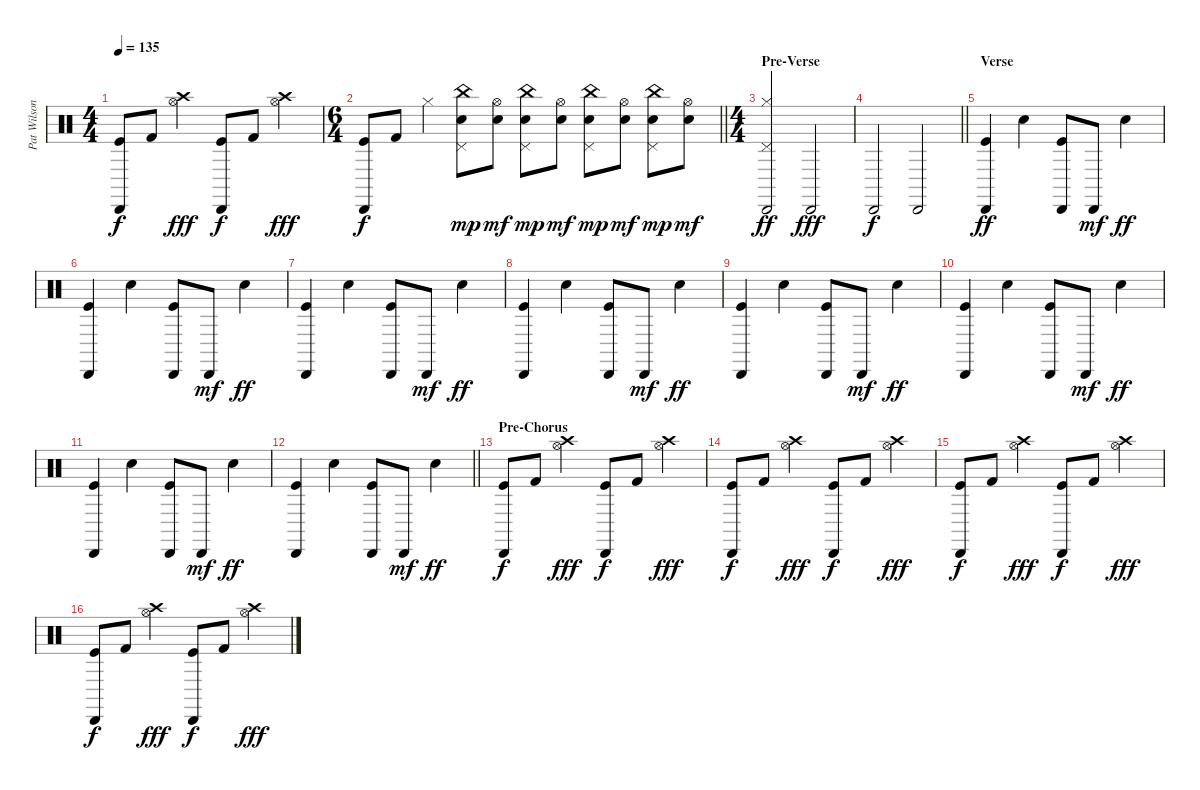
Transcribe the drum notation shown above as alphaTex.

\track ("Pat Wilson" "Pat Wilson") {instrument percussion}
\staff {score}
\articulation defaults
\ts (4 4)
\tempo 135
\clef neutral
\ks c
("Cabasa (hit)" "Kick (hit)").8{dy f} "Kick (hit) 2".8 ("Hi-Hat (open)" "Crash high (hit)").4{dy fff} ("Cabasa (hit)" "Kick (hit)").8{dy f} "Kick (hit) 2".8 ("Hi-Hat (open)" "Crash high (hit)").4{dy fff} |
\ts (6 4)
\barLineRight lightlight
("Cabasa (hit)" "Kick (hit)").8{dy f} "Kick (hit) 2".8 "Hi-Hat (closed)".4 ("China (hit)" "Pedal Hi-Hat (hit)" "Snare (hit) 2").8{dy mp} ("Hi-Hat (open)" "Electric Snare (hit)").8{dy mf} ("China (hit)" "Pedal Hi-Hat (hit)" "Snare (hit) 2").8{dy mp} ("Hi-Hat (open)" "Electric Snare (hit)").8{dy mf} ("China (hit)" "Pedal Hi-Hat (hit)" "Snare (hit) 2").8{dy mp} ("Hi-Hat (open)" "Electric Snare (hit)").8{dy mf} ("China (hit)" "Pedal Hi-Hat (hit)" "Snare (hit) 2").8{dy mp} ("Hi-Hat (open)" "Electric Snare (hit)").8{dy mf} |
\ts (4 4)
\section ("" "Pre-Verse")
("Cabasa (hit)" "Pedal Hi-Hat (hit)" "Hi-Hat (closed)").2{dy ff} "Cabasa (hit)".2{dy fff} |
\barLineRight lightlight "Cabasa (hit)".2{dy f} "Cabasa (hit)".2
|
\section ("" "Verse")
("Cabasa (hit)" "Kick (hit)").4{dy ff} "Snare (hit) 2".4 ("Cabasa (hit)" "Kick (hit)").8 "Cabasa (hit)".8{dy mf} "Snare (hit) 2".4{dy ff} |
("Cabasa (hit)" "Kick (hit)").4 "Snare (hit) 2".4 ("Cabasa (hit)" "Kick (hit)").8 "Cabasa (hit)".8{dy mf} "Snare (hit) 2".4{dy ff} |
("Cabasa (hit)" "Kick (hit)").4 "Snare (hit) 2".4 ("Cabasa (hit)" "Kick (hit)").8 "Cabasa (hit)".8{dy mf} "Snare (hit) 2".4{dy ff} |
("Cabasa (hit)" "Kick (hit)").4 "Snare (hit) 2".4 ("Cabasa (hit)" "Kick (hit)").8 "Cabasa (hit)".8{dy mf} "Snare (hit) 2".4{dy ff} |
("Cabasa (hit)" "Kick (hit)").4 "Snare (hit) 2".4 ("Cabasa (hit)" "Kick (hit)").8 "Cabasa (hit)".8{dy mf} "Snare (hit) 2".4{dy ff} |
("Cabasa (hit)" "Kick (hit)").4 "Snare (hit) 2".4 ("Cabasa (hit)" "Kick (hit)").8 "Cabasa (hit)".8{dy mf} "Snare (hit) 2".4{dy ff} |
("Cabasa (hit)" "Kick (hit)").4 "Snare (hit) 2".4 ("Cabasa (hit)" "Kick (hit)").8 "Cabasa (hit)".8{dy mf} "Snare (hit) 2".4{dy ff} |
\barLineRight lightlight
("Cabasa (hit)" "Kick (hit)").4 "Snare (hit) 2".4 ("Cabasa (hit)" "Kick (hit)").8 "Cabasa (hit)".8{dy mf} "Snare (hit) 2".4{dy ff} |
\section ("" "Pre-Chorus")
("Cabasa (hit)" "Kick (hit)").8{dy f} "Kick (hit) 2".8 ("Hi-Hat (open)" "Crash high (hit)").4{dy fff} ("Cabasa (hit)" "Kick (hit)").8{dy f} "Kick (hit) 2".8 ("Hi-Hat (open)" "Crash high (hit)").4{dy fff} |
("Cabasa (hit)" "Kick (hit)").8{dy f} "Kick (hit) 2".8 ("Hi-Hat (open)" "Crash high (hit)").4{dy fff} ("Cabasa (hit)" "Kick (hit)").8{dy f} "Kick (hit) 2".8 ("Hi-Hat (open)" "Crash high (hit)").4{dy fff} |
("Cabasa (hit)" "Kick (hit)").8{dy f} "Kick (hit) 2".8 ("Hi-Hat (open)" "Crash high (hit)").4{dy fff} ("Cabasa (hit)" "Kick (hit)").8{dy f} "Kick (hit) 2".8 ("Hi-Hat (open)" "Crash high (hit)").4{dy fff} |
("Cabasa (hit)" "Kick (hit)").8{dy f} "Kick (hit) 2".8 ("Hi-Hat (open)" "Crash high (hit)").4{dy fff} ("Cabasa (hit)" "Kick (hit)").8{dy f} "Kick (hit) 2".8 ("Hi-Hat (open)" "Crash high (hit)").4{dy fff}
